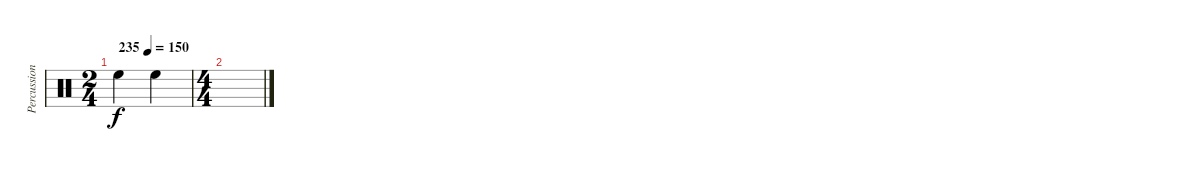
\track ("Percussion" "Percussion") {instrument percussion}
\staff {score}
\articulation defaults
\ts (2 4)
\tempo (150 "235")
\clef neutral
\ks c "High Floor Tom (hit)".4{dy f} "High Floor Tom (hit)".4
|
\ts (4 4)
